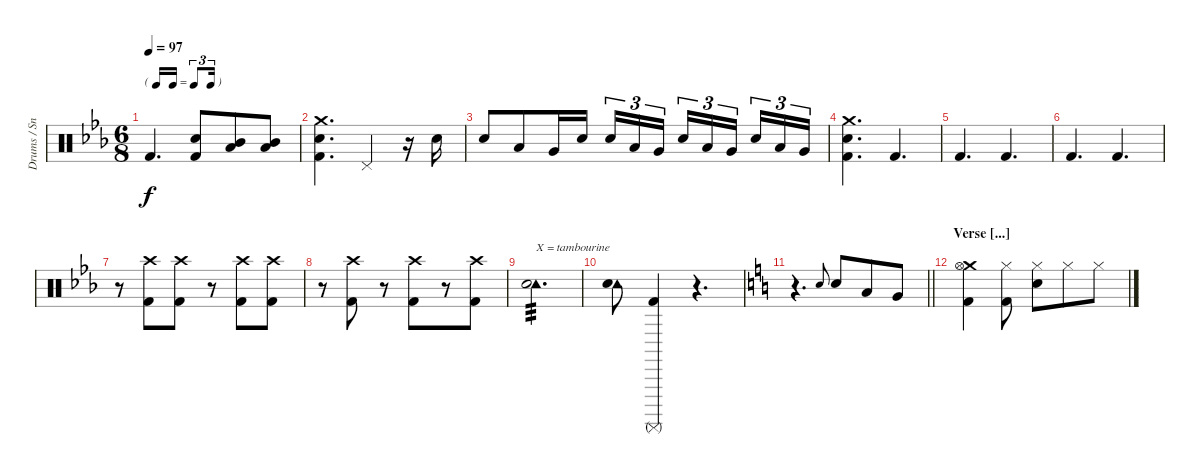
\track ("Drums / Snaps" "Drums / Sn") {instrument percussion}
\staff {score}
\articulation defaults
\ts (6 8)
\tf triplet16th
\tempo 97
\clef neutral
\ks cminor "Kick (hit) 2".4{d dy f}
("Snare (hit) 2" "Kick (hit) 2").8 ("Mid Tom (hit)" "Low Tom (hit)").8 ("Mid Tom (hit)" "Low Tom (hit)").8 |
("Crash medium (hit)" "Snare (hit) 2" "Kick (hit) 2").4{d} "Pedal Hi-Hat (hit)".4 r.16 "Snare (hit) 2".16 |
"Snare (hit) 2".8 "Low Tom (hit)".8 "Very Low Tom (hit)".16 "Snare (hit) 2".16 "Snare (hit) 2".16{tu (3 2)} "Low Tom (hit)".16{tu (3 2)} "Very Low Tom (hit)".16{tu (3 2) beam splitsecondary} "Snare (hit) 2".16{tu (3 2)} "Low Tom (hit)".16{tu (3 2)} "Very Low Tom (hit)".16{tu (3 2) beam splitsecondary} "Snare (hit) 2".16{tu (3 2)} "Low Tom (hit)".16{tu (3 2)} "Very Low Tom (hit)".16{tu (3 2)} |
("Crash medium (hit)" "Snare (hit) 2" "Kick (hit) 2").4{d} "Kick (hit) 2".4{d} |
"Kick (hit) 2".4{d} "Kick (hit) 2".4{d} |
"Kick (hit) 2".4{d} "Kick (hit) 2".4{d} |
r.8 ("Crash high (hit)" "Kick (hit) 2").8 ("Crash high (hit)" "Kick (hit) 2").8 r.8 ("Crash high (hit)" "Kick (hit) 2").8 ("Crash high (hit)" "Kick (hit) 2").8 |
r.8 ("Crash high (hit)" "Kick (hit) 2").8 r.8 ("Crash high (hit)" "Kick (hit) 2").8 r.8 ("Crash high (hit)" "Kick (hit) 2").8 |
("Tambourine (hit)" "Snare (hit) 2").2{d txt "X = tambourine" tp 3} |
("Tambourine (hit)" "Snare (hit) 2").8 ("Kick (hit) 2" "Surdo (mute)").4 r.4{d} |
\barLineRight lightlight
\ks c
r.4{d} "Snare (hit) 2".8{gr onbeat} "Snare (hit) 2".8 "Low Tom (hit)".8 "Very Low Tom (hit)".8 |
\section ("" "Verse [...]")
("Crash medium (hit)" "Hi-Hat (open)" "Kick (hit) 2").4 ("Hi-Hat (closed)" "Kick (hit) 2").8 ("Hi-Hat (closed)" "Snare (hit) 2").8 "Hi-Hat (closed)".8 "Hi-Hat (closed)".8
